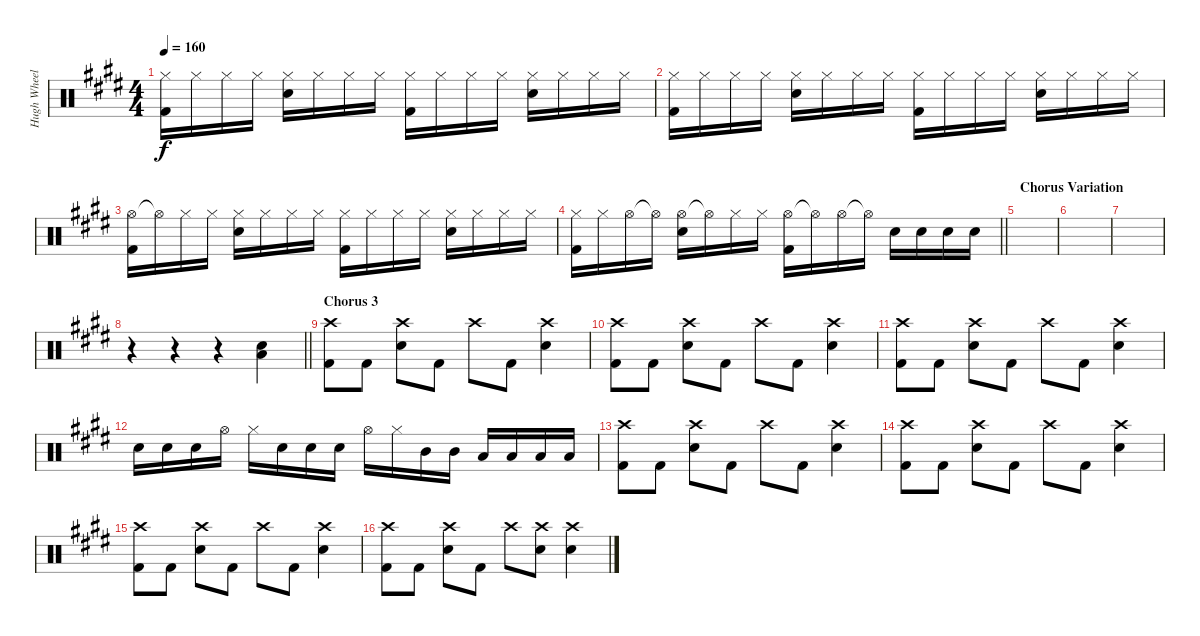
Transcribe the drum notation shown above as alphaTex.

\track ("Hugh Wheeler - Drums" "Hugh Wheel") {instrument percussion}
\staff {score}
\articulation defaults
\ts (4 4)
\tempo 160
\clef neutral
\ks e
("Hi-Hat (closed)" "Kick (hit) 2").16{dy f} "Hi-Hat (closed)".16 "Hi-Hat (closed)".16 "Hi-Hat (closed)".16 ("Hi-Hat (closed)" "Electric Snare (hit)").16 "Hi-Hat (closed)".16 "Hi-Hat (closed)".16 "Hi-Hat (closed)".16 ("Hi-Hat (closed)" "Kick (hit) 2").16 "Hi-Hat (closed)".16 "Hi-Hat (closed)".16 "Hi-Hat (closed)".16 ("Hi-Hat (closed)" "Electric Snare (hit)").16 "Hi-Hat (closed)".16 "Hi-Hat (closed)".16 "Hi-Hat (closed)".16 |
("Hi-Hat (closed)" "Kick (hit) 2").16 "Hi-Hat (closed)".16 "Hi-Hat (closed)".16 "Hi-Hat (closed)".16 ("Hi-Hat (closed)" "Electric Snare (hit)").16 "Hi-Hat (closed)".16 "Hi-Hat (closed)".16 "Hi-Hat (closed)".16 ("Hi-Hat (closed)" "Kick (hit) 2").16 "Hi-Hat (closed)".16 "Hi-Hat (closed)".16 "Hi-Hat (closed)".16 ("Hi-Hat (closed)" "Electric Snare (hit)").16 "Hi-Hat (closed)".16 "Hi-Hat (closed)".16 "Hi-Hat (closed)".16 |
("Hi-Hat (open)" "Kick (hit) 2").16 "Hi-Hat (open)"{t}.16 "Hi-Hat (closed)".16 "Hi-Hat (closed)".16 ("Hi-Hat (closed)" "Electric Snare (hit)").16 "Hi-Hat (closed)".16 "Hi-Hat (closed)".16 "Hi-Hat (closed)".16 ("Hi-Hat (closed)" "Kick (hit) 2").16 "Hi-Hat (closed)".16 "Hi-Hat (closed)".16 "Hi-Hat (closed)".16 ("Hi-Hat (closed)" "Electric Snare (hit)").16 "Hi-Hat (closed)".16 "Hi-Hat (closed)".16 "Hi-Hat (closed)".16 |
\barLineRight lightlight
("Hi-Hat (closed)" "Kick (hit) 2").16 "Hi-Hat (closed)".16 "Hi-Hat (open)".16 "Hi-Hat (open)"{t}.16 ("Hi-Hat (open)" "Electric Snare (hit)").16 "Hi-Hat (open)"{t}.16 "Hi-Hat (closed)".16 "Hi-Hat (closed)".16 ("Hi-Hat (open)" "Kick (hit) 2").16 "Hi-Hat (open)"{t}.16 "Hi-Hat (open)".16 "Hi-Hat (open)"{t}.16 "Electric Snare (hit)".16 "Electric Snare (hit)".16 "Electric Snare (hit)".16 "Electric Snare (hit)".16 |
\section ("" "Chorus Variation")
|
|
|
\barLineRight lightlight
r.4 r.4 r.4 ("Electric Snare (hit)" "Low Floor Tom (hit)").4 |
\section ("" "Chorus 3")
("Crash high (hit)" "Kick (hit) 2").8 "Kick (hit) 2".8 ("Crash high (hit)" "Electric Snare (hit)").8 "Kick (hit) 2".8 "Crash high (hit)".8 "Kick (hit) 2".8 ("Crash high (hit)" "Electric Snare (hit)").4 |
("Crash high (hit)" "Kick (hit) 2").8 "Kick (hit) 2".8 ("Crash high (hit)" "Electric Snare (hit)").8 "Kick (hit) 2".8 "Crash high (hit)".8 "Kick (hit) 2".8 ("Crash high (hit)" "Electric Snare (hit)").4 |
("Crash high (hit)" "Kick (hit) 2").8 "Kick (hit) 2".8 ("Crash high (hit)" "Electric Snare (hit)").8 "Kick (hit) 2".8 "Crash high (hit)".8 "Kick (hit) 2".8 ("Crash high (hit)" "Electric Snare (hit)").4 |
"Electric Snare (hit)".16 "Electric Snare (hit)".16 "Electric Snare (hit)".16 "Hi-Hat (open)".16 "Hi-Hat (closed)".16 "Electric Snare (hit)".16 "Electric Snare (hit)".16 "Electric Snare (hit)".16 "Hi-Hat (open)".16 "Hi-Hat (closed)".16 "Mid Tom (hit)".16 "Mid Tom (hit)".16 "Low Tom (hit)".16 "Low Tom (hit)".16 "Low Tom (hit)".16 "Low Tom (hit)".16 |
("Crash high (hit)" "Kick (hit) 2").8 "Kick (hit) 2".8 ("Crash high (hit)" "Electric Snare (hit)").8 "Kick (hit) 2".8 "Crash high (hit)".8 "Kick (hit) 2".8 ("Crash high (hit)" "Electric Snare (hit)").4 |
("Crash high (hit)" "Kick (hit) 2").8 "Kick (hit) 2".8 ("Crash high (hit)" "Electric Snare (hit)").8 "Kick (hit) 2".8 "Crash high (hit)".8 "Kick (hit) 2".8 ("Crash high (hit)" "Electric Snare (hit)").4 |
("Crash high (hit)" "Kick (hit) 2").8 "Kick (hit) 2".8 ("Crash high (hit)" "Electric Snare (hit)").8 "Kick (hit) 2".8 "Crash high (hit)".8 "Kick (hit) 2".8 ("Crash high (hit)" "Electric Snare (hit)").4 |
("Crash high (hit)" "Kick (hit) 2").8 "Kick (hit) 2".8 ("Crash high (hit)" "Electric Snare (hit)").8 "Kick (hit) 2".8 "Crash high (hit)".8 ("Crash high (hit)" "Electric Snare (hit)").8 ("Crash high (hit)" "Electric Snare (hit)").4
